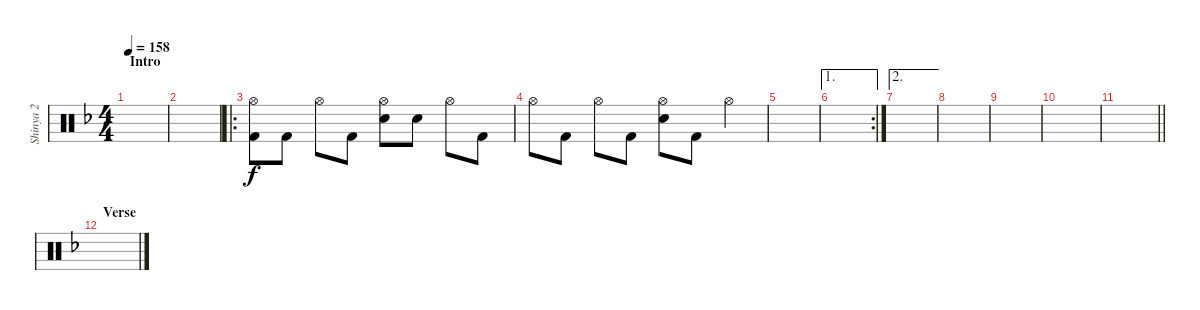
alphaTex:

\track ("Shinya 2" "Shinya 2") {instrument percussion}
\staff {score}
\articulation defaults
\ts (4 4)
\section ("" "Intro")
\tempo 158
\clef neutral
\ks f
|
|
\ro
("Hi-Hat (open)" "Kick (hit) 2").8 "Kick (hit) 2".8 "Hi-Hat (open)".8 "Kick (hit) 2".8 ("Hi-Hat (open)" "Snare (hit) 2").8 "Snare (hit) 2".8 "Hi-Hat (open)".8 "Kick (hit) 2".8 |
"Hi-Hat (open)".8 "Kick (hit) 2".8 "Hi-Hat (open)".8 "Kick (hit) 2".8 ("Hi-Hat (open)" "Snare (hit) 2").8 "Kick (hit) 2".8 "Hi-Hat (open)".4 |
|
\ae 1
\rc 2
|
\ae 2
|
|
|
|
\barLineRight lightlight
|
\section ("" "Verse")
